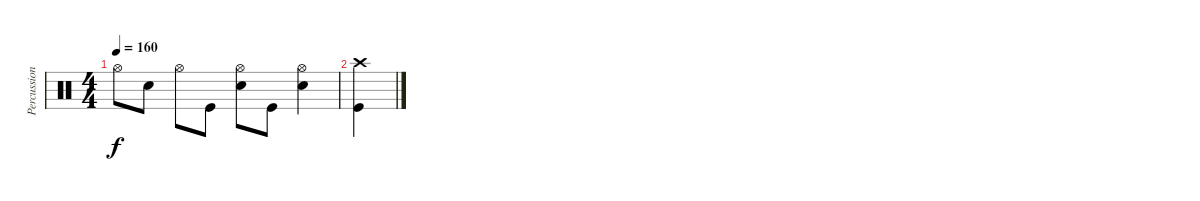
\track ("Percussion" "Percussion") {instrument percussion}
\staff {score}
\articulation defaults
\ts (4 4)
\tempo 160
\clef neutral
\ks c "Hi-Hat (open)".8{dy f} "Electric Snare (hit)".8 "Hi-Hat (open)".8 "Kick (hit)".8
("Hi-Hat (open)" "Electric Snare (hit)").8 "Kick (hit)".8 ("Hi-Hat (open)" "Electric Snare (hit)").4 |
("Crash high (hit)" "Kick (hit)").4
